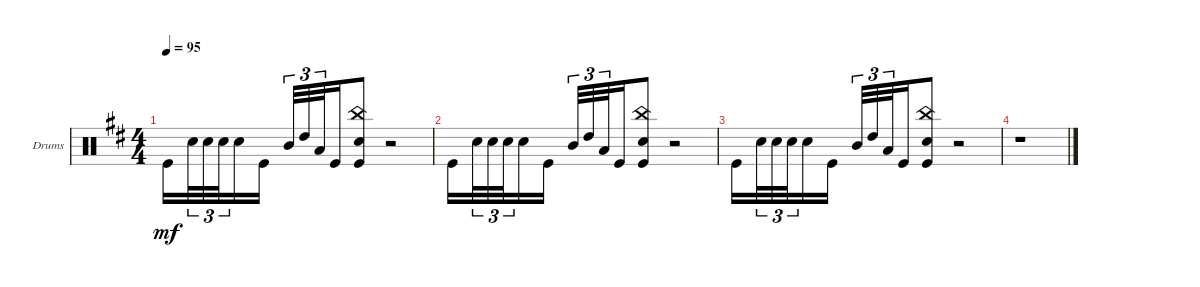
\defaultSystemsLayout 4
\bracketExtendMode groupsimilarinstruments
\firstSystemTrackNameOrientation horizontal
\otherSystemsTrackNameOrientation horizontal
\track ("Drumkit" "Drums") {instrument percussion}
\staff {score}
\articulation defaults
\ts (4 4)
\tempo 95
\clef neutral
\scale
0.333333
\ks d "Kick (hit)".16{dy mf beam merge} "Snare (hit) 2".32{tu (3 2) beam merge} "Snare (hit) 2".32{tu (3 2) beam merge} "Snare (hit) 2".32{tu (3 2) beam merge} "Snare (hit) 2".16{beam merge} "Kick (hit)".16 "Mid Tom (hit)".32{tu (3 2) beam invert beam merge} "High Tom (hit)".32{tu (3 2) beam merge} "Low Tom (hit)".32{tu (3 2) beam merge} "Kick (hit)".16{beam merge}
("Snare (hit) 2" "Kick (hit)" "China (hit)").8 r.2 |
\scale
0.333333 "Kick (hit)".16{beam merge} "Snare (hit) 2".32{tu (3 2) beam merge} "Snare (hit) 2".32{tu (3 2) beam merge} "Snare (hit) 2".32{tu (3 2) beam merge} "Snare (hit) 2".16{beam merge} "Kick (hit)".16 "Mid Tom (hit)".32{tu (3 2) beam invert beam merge} "High Tom (hit)".32{tu (3 2) beam merge} "Low Tom (hit)".32{tu (3 2) beam merge} "Kick (hit)".16{beam merge} ("Snare (hit) 2" "Kick (hit)" "China (hit)").8 r.2 |
\scale
0.333333 "Kick (hit)".16{beam merge} "Snare (hit) 2".32{tu (3 2) beam merge} "Snare (hit) 2".32{tu (3 2) beam merge} "Snare (hit) 2".32{tu (3 2) beam merge} "Snare (hit) 2".16{beam merge} "Kick (hit)".16 "Mid Tom (hit)".32{tu (3 2) beam invert beam merge} "High Tom (hit)".32{tu (3 2) beam merge} "Low Tom (hit)".32{tu (3 2) beam merge} "Kick (hit)".16{beam merge} ("Snare (hit) 2" "Kick (hit)" "China (hit)").8 r.2 |
r.1
